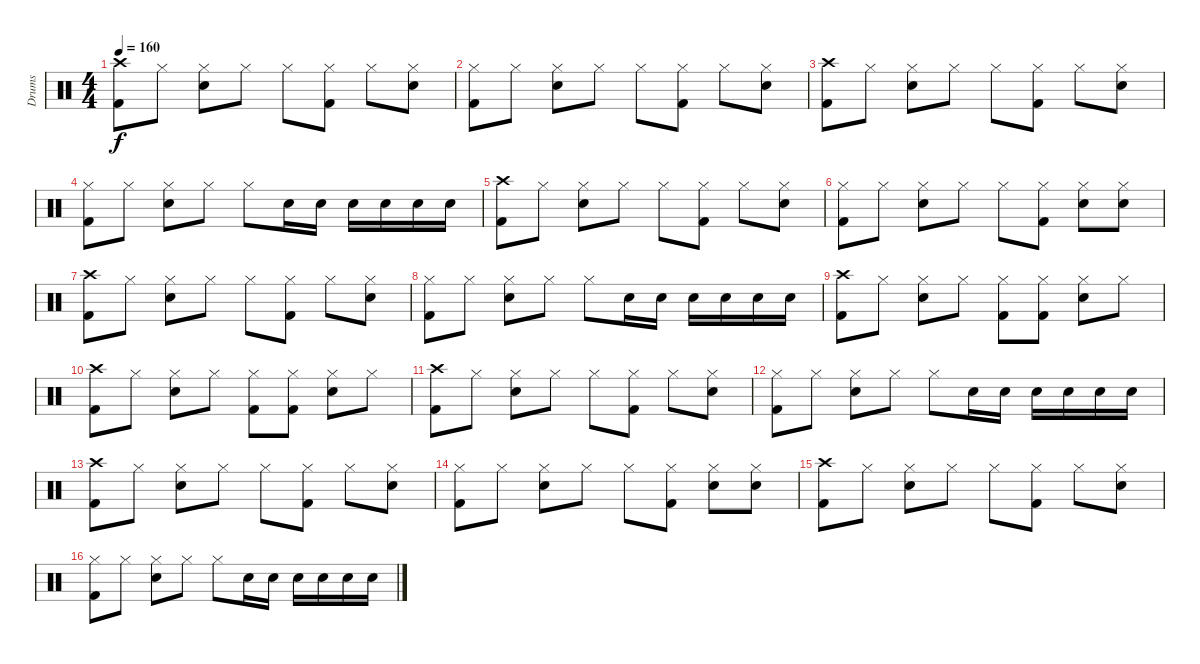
\track ("Drums" "Drums") {solo instrument percussion}
\staff {score}
\articulation defaults
\ts (4 4)
\tempo 160
\clef neutral
\ks c
("Crash high (hit)" "Kick (hit) 2").8{dy f} "Hi-Hat (closed)".8 ("Hi-Hat (closed)" "Snare (hit) 2").8 "Hi-Hat (closed)".8 "Hi-Hat (closed)".8 ("Hi-Hat (closed)" "Kick (hit) 2").8 "Hi-Hat (closed)".8 ("Hi-Hat (closed)" "Snare (hit) 2").8 |
("Hi-Hat (closed)" "Kick (hit) 2").8 "Hi-Hat (closed)".8 ("Hi-Hat (closed)" "Snare (hit) 2").8 "Hi-Hat (closed)".8 "Hi-Hat (closed)".8 ("Hi-Hat (closed)" "Kick (hit) 2").8 "Hi-Hat (closed)".8 ("Hi-Hat (closed)" "Snare (hit) 2").8 |
("Crash high (hit)" "Kick (hit) 2").8 "Hi-Hat (closed)".8 ("Hi-Hat (closed)" "Snare (hit) 2").8 "Hi-Hat (closed)".8 "Hi-Hat (closed)".8 ("Hi-Hat (closed)" "Kick (hit) 2").8 "Hi-Hat (closed)".8 ("Hi-Hat (closed)" "Snare (hit) 2").8 |
("Hi-Hat (closed)" "Kick (hit) 2").8 "Hi-Hat (closed)".8 ("Hi-Hat (closed)" "Snare (hit) 2").8 "Hi-Hat (closed)".8 "Hi-Hat (closed)".8 "Snare (hit) 2".16 "Snare (hit) 2".16 "Snare (hit) 2".16 "Snare (hit) 2".16 "Snare (hit) 2".16 "Snare (hit) 2".16 |
("Crash high (hit)" "Kick (hit) 2").8 "Hi-Hat (closed)".8 ("Hi-Hat (closed)" "Snare (hit) 2").8 "Hi-Hat (closed)".8 "Hi-Hat (closed)".8 ("Hi-Hat (closed)" "Kick (hit) 2").8 "Hi-Hat (closed)".8 ("Hi-Hat (closed)" "Snare (hit) 2").8 |
("Hi-Hat (closed)" "Kick (hit) 2").8 "Hi-Hat (closed)".8 ("Hi-Hat (closed)" "Snare (hit) 2").8 "Hi-Hat (closed)".8 "Hi-Hat (closed)".8 ("Hi-Hat (closed)" "Kick (hit) 2").8 ("Hi-Hat (closed)" "Snare (hit) 2").8 ("Hi-Hat (closed)" "Snare (hit) 2").8 |
("Crash high (hit)" "Kick (hit) 2").8 "Hi-Hat (closed)".8 ("Hi-Hat (closed)" "Snare (hit) 2").8 "Hi-Hat (closed)".8 "Hi-Hat (closed)".8 ("Hi-Hat (closed)" "Kick (hit) 2").8 "Hi-Hat (closed)".8 ("Hi-Hat (closed)" "Snare (hit) 2").8 |
("Hi-Hat (closed)" "Kick (hit) 2").8 "Hi-Hat (closed)".8 ("Hi-Hat (closed)" "Snare (hit) 2").8 "Hi-Hat (closed)".8 "Hi-Hat (closed)".8 "Snare (hit) 2".16 "Snare (hit) 2".16 "Snare (hit) 2".16 "Snare (hit) 2".16 "Snare (hit) 2".16 "Snare (hit) 2".16 |
("Crash high (hit)" "Kick (hit) 2").8 "Hi-Hat (closed)".8 ("Hi-Hat (closed)" "Snare (hit) 2").8 "Hi-Hat (closed)".8 ("Hi-Hat (closed)" "Kick (hit) 2").8 ("Hi-Hat (closed)" "Kick (hit) 2").8 ("Hi-Hat (closed)" "Snare (hit) 2").8 "Hi-Hat (closed)".8 |
("Crash high (hit)" "Kick (hit) 2").8 "Hi-Hat (closed)".8 ("Hi-Hat (closed)" "Snare (hit) 2").8 "Hi-Hat (closed)".8 ("Hi-Hat (closed)" "Kick (hit) 2").8 ("Hi-Hat (closed)" "Kick (hit) 2").8 ("Hi-Hat (closed)" "Snare (hit) 2").8 "Hi-Hat (closed)".8 |
("Crash high (hit)" "Kick (hit) 2").8 "Hi-Hat (closed)".8 ("Hi-Hat (closed)" "Snare (hit) 2").8 "Hi-Hat (closed)".8 "Hi-Hat (closed)".8 ("Hi-Hat (closed)" "Kick (hit) 2").8 "Hi-Hat (closed)".8 ("Hi-Hat (closed)" "Snare (hit) 2").8 |
("Hi-Hat (closed)" "Kick (hit) 2").8 "Hi-Hat (closed)".8 ("Hi-Hat (closed)" "Snare (hit) 2").8 "Hi-Hat (closed)".8 "Hi-Hat (closed)".8 "Snare (hit) 2".16 "Snare (hit) 2".16 "Snare (hit) 2".16 "Snare (hit) 2".16 "Snare (hit) 2".16 "Snare (hit) 2".16 |
("Crash high (hit)" "Kick (hit) 2").8 "Hi-Hat (closed)".8 ("Hi-Hat (closed)" "Snare (hit) 2").8 "Hi-Hat (closed)".8 "Hi-Hat (closed)".8 ("Hi-Hat (closed)" "Kick (hit) 2").8 "Hi-Hat (closed)".8 ("Hi-Hat (closed)" "Snare (hit) 2").8 |
("Hi-Hat (closed)" "Kick (hit) 2").8 "Hi-Hat (closed)".8 ("Hi-Hat (closed)" "Snare (hit) 2").8 "Hi-Hat (closed)".8 "Hi-Hat (closed)".8 ("Hi-Hat (closed)" "Kick (hit) 2").8 ("Hi-Hat (closed)" "Snare (hit) 2").8 ("Hi-Hat (closed)" "Snare (hit) 2").8 |
("Crash high (hit)" "Kick (hit) 2").8 "Hi-Hat (closed)".8 ("Hi-Hat (closed)" "Snare (hit) 2").8 "Hi-Hat (closed)".8 "Hi-Hat (closed)".8 ("Hi-Hat (closed)" "Kick (hit) 2").8 "Hi-Hat (closed)".8 ("Hi-Hat (closed)" "Snare (hit) 2").8 |
("Hi-Hat (closed)" "Kick (hit) 2").8 "Hi-Hat (closed)".8 ("Hi-Hat (closed)" "Snare (hit) 2").8 "Hi-Hat (closed)".8 "Hi-Hat (closed)".8 "Snare (hit) 2".16 "Snare (hit) 2".16 "Snare (hit) 2".16 "Snare (hit) 2".16 "Snare (hit) 2".16 "Snare (hit) 2".16
